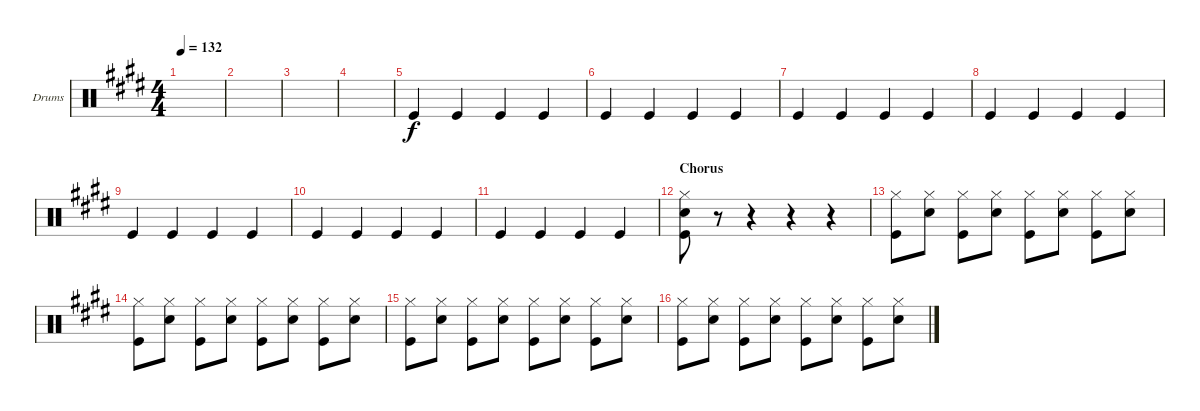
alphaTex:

\defaultSystemsLayout 4
\bracketExtendMode groupsimilarinstruments
\firstSystemTrackNameOrientation horizontal
\otherSystemsTrackNameOrientation horizontal
\track ("Drumkit" "Drums") {instrument percussion}
\staff {score}
\articulation defaults
\ts (4 4)
\tempo 132
\clef neutral
\scale
0.333333
\ks c#minor
|
\scale
0.333333 |
\scale
0.333333 |
\scale
0.333333 |
\scale
0.333333 "Kick (hit)".4 "Kick (hit)".4 "Kick (hit)".4 "Kick (hit)".4 |
\scale
0.333333 "Kick (hit)".4 "Kick (hit)".4 "Kick (hit)".4 "Kick (hit)".4 |
\scale
0.333333 "Kick (hit)".4 "Kick (hit)".4 "Kick (hit)".4 "Kick (hit)".4 |
\scale
0.333333 "Kick (hit)".4 "Kick (hit)".4 "Kick (hit)".4 "Kick (hit)".4 |
\scale
0.333333 "Kick (hit)".4 "Kick (hit)".4 "Kick (hit)".4 "Kick (hit)".4 |
\scale
0.333333 "Kick (hit)".4 "Kick (hit)".4 "Kick (hit)".4 "Kick (hit)".4 |
\scale
0.333333 "Kick (hit)".4 "Kick (hit)".4 "Kick (hit)".4 "Kick (hit)".4 |
\section ("" "Chorus")
\scale
0.333333 ("Kick (hit)" "Snare (hit) 2" "Hi-Hat (closed)").8 r.8 r.4 r.4 r.4 |
\scale
0.333333 ("Kick (hit)" "Hi-Hat (closed)").8 ("Snare (hit) 2" "Hi-Hat (closed)").8 ("Kick (hit)" "Hi-Hat (closed)").8 ("Snare (hit) 2" "Hi-Hat (closed)").8 ("Kick (hit)" "Hi-Hat (closed)").8 ("Snare (hit) 2" "Hi-Hat (closed)").8 ("Kick (hit)" "Hi-Hat (closed)").8 ("Snare (hit) 2" "Hi-Hat (closed)").8 |
\scale
0.333333 ("Kick (hit)" "Hi-Hat (closed)").8 ("Snare (hit) 2" "Hi-Hat (closed)").8 ("Kick (hit)" "Hi-Hat (closed)").8 ("Snare (hit) 2" "Hi-Hat (closed)").8 ("Kick (hit)" "Hi-Hat (closed)").8 ("Snare (hit) 2" "Hi-Hat (closed)").8 ("Kick (hit)" "Hi-Hat (closed)").8 ("Snare (hit) 2" "Hi-Hat (closed)").8 |
\scale
0.333333 ("Kick (hit)" "Hi-Hat (closed)").8 ("Snare (hit) 2" "Hi-Hat (closed)").8 ("Kick (hit)" "Hi-Hat (closed)").8 ("Snare (hit) 2" "Hi-Hat (closed)").8 ("Kick (hit)" "Hi-Hat (closed)").8 ("Snare (hit) 2" "Hi-Hat (closed)").8 ("Kick (hit)" "Hi-Hat (closed)").8 ("Snare (hit) 2" "Hi-Hat (closed)").8 |
\scale
0.333333 ("Kick (hit)" "Hi-Hat (closed)").8 ("Snare (hit) 2" "Hi-Hat (closed)").8 ("Kick (hit)" "Hi-Hat (closed)").8 ("Snare (hit) 2" "Hi-Hat (closed)").8 ("Kick (hit)" "Hi-Hat (closed)").8 ("Snare (hit) 2" "Hi-Hat (closed)").8 ("Kick (hit)" "Hi-Hat (closed)").8 ("Snare (hit) 2" "Hi-Hat (closed)").8
